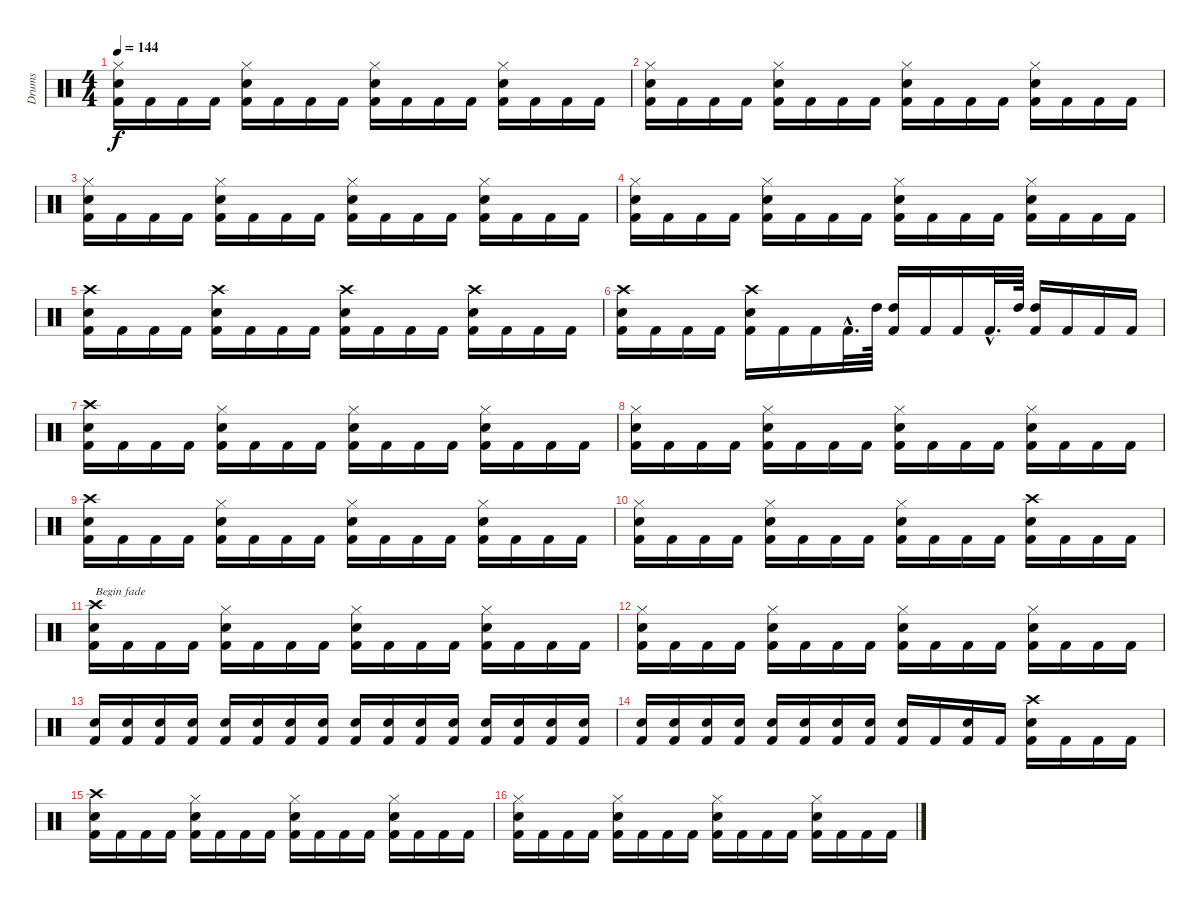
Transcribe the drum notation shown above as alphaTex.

\track ("Drums" "Drums") {instrument percussion}
\staff {score}
\articulation defaults
\ts (4 4)
\tempo 144
\clef neutral
\ks c
("Hi-Hat (closed)" "Snare (hit) 2" "Kick (hit) 2").16{dy f} "Kick (hit) 2".16 "Kick (hit) 2".16 "Kick (hit) 2".16 ("Hi-Hat (closed)" "Snare (hit) 2" "Kick (hit) 2").16 "Kick (hit) 2".16 "Kick (hit) 2".16 "Kick (hit) 2".16 ("Hi-Hat (closed)" "Snare (hit) 2" "Kick (hit) 2").16 "Kick (hit) 2".16 "Kick (hit) 2".16 "Kick (hit) 2".16 ("Hi-Hat (closed)" "Snare (hit) 2" "Kick (hit) 2").16 "Kick (hit) 2".16 "Kick (hit) 2".16 "Kick (hit) 2".16 |
("Hi-Hat (closed)" "Snare (hit) 2" "Kick (hit) 2").16 "Kick (hit) 2".16 "Kick (hit) 2".16 "Kick (hit) 2".16 ("Hi-Hat (closed)" "Snare (hit) 2" "Kick (hit) 2").16 "Kick (hit) 2".16 "Kick (hit) 2".16 "Kick (hit) 2".16 ("Hi-Hat (closed)" "Snare (hit) 2" "Kick (hit) 2").16 "Kick (hit) 2".16 "Kick (hit) 2".16 "Kick (hit) 2".16 ("Hi-Hat (closed)" "Snare (hit) 2" "Kick (hit) 2").16 "Kick (hit) 2".16 "Kick (hit) 2".16 "Kick (hit) 2".16 |
("Hi-Hat (closed)" "Snare (hit) 2" "Kick (hit) 2").16 "Kick (hit) 2".16 "Kick (hit) 2".16 "Kick (hit) 2".16 ("Hi-Hat (closed)" "Snare (hit) 2" "Kick (hit) 2").16 "Kick (hit) 2".16 "Kick (hit) 2".16 "Kick (hit) 2".16 ("Hi-Hat (closed)" "Snare (hit) 2" "Kick (hit) 2").16 "Kick (hit) 2".16 "Kick (hit) 2".16 "Kick (hit) 2".16 ("Hi-Hat (closed)" "Snare (hit) 2" "Kick (hit) 2").16 "Kick (hit) 2".16 "Kick (hit) 2".16 "Kick (hit) 2".16 |
("Hi-Hat (closed)" "Snare (hit) 2" "Kick (hit) 2").16 "Kick (hit) 2".16 "Kick (hit) 2".16 "Kick (hit) 2".16 ("Hi-Hat (closed)" "Snare (hit) 2" "Kick (hit) 2").16 "Kick (hit) 2".16 "Kick (hit) 2".16 "Kick (hit) 2".16 ("Hi-Hat (closed)" "Snare (hit) 2" "Kick (hit) 2").16 "Kick (hit) 2".16 "Kick (hit) 2".16 "Kick (hit) 2".16 ("Hi-Hat (closed)" "Snare (hit) 2" "Kick (hit) 2").16 "Kick (hit) 2".16 "Kick (hit) 2".16 "Kick (hit) 2".16 |
("Crash high (hit)" "Snare (hit) 2" "Kick (hit) 2").16 "Kick (hit) 2".16 "Kick (hit) 2".16 "Kick (hit) 2".16 ("Crash high (hit)" "Snare (hit) 2" "Kick (hit) 2").16 "Kick (hit) 2".16 "Kick (hit) 2".16 "Kick (hit) 2".16 ("Crash high (hit)" "Snare (hit) 2" "Kick (hit) 2").16 "Kick (hit) 2".16 "Kick (hit) 2".16 "Kick (hit) 2".16 ("Crash high (hit)" "Snare (hit) 2" "Kick (hit) 2").16 "Kick (hit) 2".16 "Kick (hit) 2".16 "Kick (hit) 2".16 |
("Crash high (hit)" "Snare (hit) 2" "Kick (hit) 2").16 "Kick (hit) 2".16 "Kick (hit) 2".16 "Kick (hit) 2".16 ("Crash high (hit)" "Snare (hit) 2" "Kick (hit) 2").16 "Kick (hit) 2".16 "Kick (hit) 2".16 "Kick (hit) 2"{hac}.32{d} "High Tom (hit)".64 ("High Tom (hit)" "Kick (hit) 2").16 "Kick (hit) 2".16 "Kick (hit) 2".16 "Kick (hit) 2"{hac}.32{d} "High Tom (hit)".64 ("High Tom (hit)" "Kick (hit) 2").16 "Kick (hit) 2".16 "Kick (hit) 2".16 "Kick (hit) 2".16 |
("Crash high (hit)" "Snare (hit) 2" "Kick (hit) 2").16 "Kick (hit) 2".16 "Kick (hit) 2".16 "Kick (hit) 2".16 ("Hi-Hat (closed)" "Snare (hit) 2" "Kick (hit) 2").16 "Kick (hit) 2".16 "Kick (hit) 2".16 "Kick (hit) 2".16 ("Hi-Hat (closed)" "Snare (hit) 2" "Kick (hit) 2").16 "Kick (hit) 2".16 "Kick (hit) 2".16 "Kick (hit) 2".16 ("Hi-Hat (closed)" "Snare (hit) 2" "Kick (hit) 2").16 "Kick (hit) 2".16 "Kick (hit) 2".16 "Kick (hit) 2".16 |
("Hi-Hat (closed)" "Snare (hit) 2" "Kick (hit) 2").16 "Kick (hit) 2".16 "Kick (hit) 2".16 "Kick (hit) 2".16 ("Hi-Hat (closed)" "Snare (hit) 2" "Kick (hit) 2").16 "Kick (hit) 2".16 "Kick (hit) 2".16 "Kick (hit) 2".16 ("Hi-Hat (closed)" "Snare (hit) 2" "Kick (hit) 2").16 "Kick (hit) 2".16 "Kick (hit) 2".16 "Kick (hit) 2".16 ("Hi-Hat (closed)" "Snare (hit) 2" "Kick (hit) 2").16 "Kick (hit) 2".16 "Kick (hit) 2".16 "Kick (hit) 2".16 |
("Crash high (hit)" "Snare (hit) 2" "Kick (hit) 2").16 "Kick (hit) 2".16 "Kick (hit) 2".16 "Kick (hit) 2".16 ("Hi-Hat (closed)" "Snare (hit) 2" "Kick (hit) 2").16 "Kick (hit) 2".16 "Kick (hit) 2".16 "Kick (hit) 2".16 ("Hi-Hat (closed)" "Snare (hit) 2" "Kick (hit) 2").16 "Kick (hit) 2".16 "Kick (hit) 2".16 "Kick (hit) 2".16 ("Hi-Hat (closed)" "Snare (hit) 2" "Kick (hit) 2").16 "Kick (hit) 2".16 "Kick (hit) 2".16 "Kick (hit) 2".16 |
("Hi-Hat (closed)" "Snare (hit) 2" "Kick (hit) 2").16 "Kick (hit) 2".16 "Kick (hit) 2".16 "Kick (hit) 2".16 ("Hi-Hat (closed)" "Snare (hit) 2" "Kick (hit) 2").16 "Kick (hit) 2".16 "Kick (hit) 2".16 "Kick (hit) 2".16 ("Hi-Hat (closed)" "Snare (hit) 2" "Kick (hit) 2").16 "Kick (hit) 2".16 "Kick (hit) 2".16 "Kick (hit) 2".16 ("Crash high (hit)" "Snare (hit) 2" "Kick (hit) 2").16 "Kick (hit) 2".16 "Kick (hit) 2".16 "Kick (hit) 2".16 |
("Crash high (hit)" "Snare (hit) 2" "Kick (hit) 2").16{txt "Begin fade"} "Kick (hit) 2".16 "Kick (hit) 2".16 "Kick (hit) 2".16 ("Hi-Hat (closed)" "Snare (hit) 2" "Kick (hit) 2").16 "Kick (hit) 2".16 "Kick (hit) 2".16 "Kick (hit) 2".16 ("Hi-Hat (closed)" "Snare (hit) 2" "Kick (hit) 2").16 "Kick (hit) 2".16 "Kick (hit) 2".16 "Kick (hit) 2".16 ("Hi-Hat (closed)" "Snare (hit) 2" "Kick (hit) 2").16 "Kick (hit) 2".16 "Kick (hit) 2".16 "Kick (hit) 2".16 |
("Hi-Hat (closed)" "Snare (hit) 2" "Kick (hit) 2").16 "Kick (hit) 2".16 "Kick (hit) 2".16 "Kick (hit) 2".16 ("Hi-Hat (closed)" "Snare (hit) 2" "Kick (hit) 2").16 "Kick (hit) 2".16 "Kick (hit) 2".16 "Kick (hit) 2".16 ("Hi-Hat (closed)" "Snare (hit) 2" "Kick (hit) 2").16 "Kick (hit) 2".16 "Kick (hit) 2".16 "Kick (hit) 2".16 ("Hi-Hat (closed)" "Snare (hit) 2" "Kick (hit) 2").16 "Kick (hit) 2".16 "Kick (hit) 2".16 "Kick (hit) 2".16 |
("Snare (hit) 2" "Kick (hit) 2").16 ("Snare (hit) 2" "Kick (hit) 2").16 ("Snare (hit) 2" "Kick (hit) 2").16 ("Snare (hit) 2" "Kick (hit) 2").16 ("Snare (hit) 2" "Kick (hit) 2").16 ("Snare (hit) 2" "Kick (hit) 2").16 ("Snare (hit) 2" "Kick (hit) 2").16 ("Snare (hit) 2" "Kick (hit) 2").16 ("Snare (hit) 2" "Kick (hit) 2").16 ("Snare (hit) 2" "Kick (hit) 2").16 ("Snare (hit) 2" "Kick (hit) 2").16 ("Snare (hit) 2" "Kick (hit) 2").16 ("Snare (hit) 2" "Kick (hit) 2").16 ("Snare (hit) 2" "Kick (hit) 2").16 ("Snare (hit) 2" "Kick (hit) 2").16 ("Snare (hit) 2" "Kick (hit) 2").16 |
("Snare (hit) 2" "Kick (hit) 2").16 ("Snare (hit) 2" "Kick (hit) 2").16 ("Snare (hit) 2" "Kick (hit) 2").16 ("Snare (hit) 2" "Kick (hit) 2").16 ("Snare (hit) 2" "Kick (hit) 2").16 ("Snare (hit) 2" "Kick (hit) 2").16 ("Snare (hit) 2" "Kick (hit) 2").16 ("Snare (hit) 2" "Kick (hit) 2").16 ("Snare (hit) 2" "Kick (hit) 2").16 "Kick (hit) 2".16 ("Snare (hit) 2" "Kick (hit) 2").16 "Kick (hit) 2".16 ("Crash high (hit)" "Snare (hit) 2" "Kick (hit) 2").16 "Kick (hit) 2".16 "Kick (hit) 2".16 "Kick (hit) 2".16 |
("Crash high (hit)" "Snare (hit) 2" "Kick (hit) 2").16 "Kick (hit) 2".16 "Kick (hit) 2".16 "Kick (hit) 2".16 ("Hi-Hat (closed)" "Snare (hit) 2" "Kick (hit) 2").16 "Kick (hit) 2".16 "Kick (hit) 2".16 "Kick (hit) 2".16 ("Hi-Hat (closed)" "Snare (hit) 2" "Kick (hit) 2").16 "Kick (hit) 2".16 "Kick (hit) 2".16 "Kick (hit) 2".16 ("Hi-Hat (closed)" "Snare (hit) 2" "Kick (hit) 2").16 "Kick (hit) 2".16 "Kick (hit) 2".16 "Kick (hit) 2".16 |
("Hi-Hat (closed)" "Snare (hit) 2" "Kick (hit) 2").16 "Kick (hit) 2".16 "Kick (hit) 2".16 "Kick (hit) 2".16 ("Hi-Hat (closed)" "Snare (hit) 2" "Kick (hit) 2").16 "Kick (hit) 2".16 "Kick (hit) 2".16 "Kick (hit) 2".16 ("Hi-Hat (closed)" "Snare (hit) 2" "Kick (hit) 2").16 "Kick (hit) 2".16 "Kick (hit) 2".16 "Kick (hit) 2".16 ("Hi-Hat (closed)" "Snare (hit) 2" "Kick (hit) 2").16 "Kick (hit) 2".16 "Kick (hit) 2".16 "Kick (hit) 2".16
